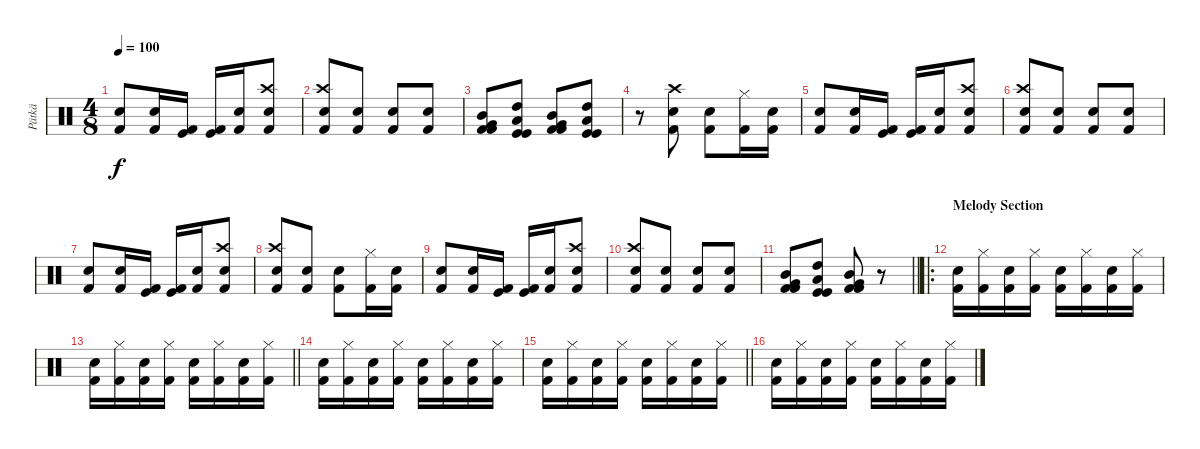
\track ("Pätkä" "Pätkä") {instrument percussion}
\staff {score}
\articulation defaults
\ts (4 8)
\tempo 100
\clef neutral
\ks c
("Snare (hit) 2" "Kick (hit) 2").8{dy f} ("Snare (hit) 2" "Kick (hit) 2").16 ("Kick (hit)" "Kick (hit) 2").16 ("Kick (hit)" "Kick (hit) 2").16 ("Snare (hit) 2" "Kick (hit) 2").16 ("Crash high (hit)" "Electric Snare (hit)" "Kick (hit) 2").8 |
("Crash high (hit)" "Electric Snare (hit)" "Kick (hit) 2").8 ("Snare (hit) 2" "Kick (hit) 2").8 ("Electric Snare (hit)" "Kick (hit) 2").8 ("Snare (hit) 2" "Kick (hit) 2").8 |
("Mid Tom (hit)" "Very Low Tom (hit)" "Kick (hit) 2" "Kick (hit) 2").8 ("High Tom (hit)" "Low Tom (hit)" "Kick (hit)" "Kick (hit)").8 ("Mid Tom (hit)" "Very Low Tom (hit)" "Kick (hit) 2" "Kick (hit) 2").8 ("High Tom (hit)" "Low Tom (hit)" "Kick (hit)" "Kick (hit)").8 |
r.8 ("Crash high (hit)" "Snare (hit) 2" "Kick (hit) 2").8 ("Electric Snare (hit)" "Kick (hit) 2").8 ("Hi-Hat (closed)" "Kick (hit) 2").16 ("Snare (hit) 2" "Kick (hit) 2").16 |
("Snare (hit) 2" "Kick (hit) 2").8 ("Snare (hit) 2" "Kick (hit) 2").16 ("Kick (hit)" "Kick (hit) 2").16 ("Kick (hit)" "Kick (hit) 2").16 ("Snare (hit) 2" "Kick (hit) 2").16 ("Crash high (hit)" "Electric Snare (hit)" "Kick (hit) 2").8 |
("Crash high (hit)" "Electric Snare (hit)" "Kick (hit) 2").8 ("Snare (hit) 2" "Kick (hit) 2").8 ("Electric Snare (hit)" "Kick (hit) 2").8 ("Snare (hit) 2" "Kick (hit) 2").8 |
("Electric Snare (hit)" "Kick (hit) 2").8 ("Snare (hit) 2" "Kick (hit) 2").16 ("Kick (hit)" "Kick (hit) 2").16 ("Kick (hit)" "Kick (hit) 2").16 ("Snare (hit) 2" "Kick (hit) 2").16 ("Crash high (hit)" "Electric Snare (hit)" "Kick (hit) 2").8 |
("Crash high (hit)" "Electric Snare (hit)" "Kick (hit) 2").8 ("Snare (hit) 2" "Kick (hit) 2").8 ("Electric Snare (hit)" "Kick (hit) 2").8 ("Hi-Hat (closed)" "Kick (hit) 2").16 ("Snare (hit) 2" "Kick (hit) 2").16 |
("Snare (hit) 2" "Kick (hit) 2").8 ("Snare (hit) 2" "Kick (hit) 2").16 ("Kick (hit)" "Kick (hit) 2").16 ("Kick (hit)" "Kick (hit) 2").16 ("Snare (hit) 2" "Kick (hit) 2").16 ("Crash high (hit)" "Electric Snare (hit)" "Kick (hit) 2").8 |
("Crash high (hit)" "Electric Snare (hit)" "Kick (hit) 2").8 ("Snare (hit) 2" "Kick (hit) 2").8 ("Electric Snare (hit)" "Kick (hit) 2").8 ("Snare (hit) 2" "Kick (hit) 2").8 |
\barLineRight lightlight
("Mid Tom (hit)" "Very Low Tom (hit)" "Kick (hit) 2" "Kick (hit) 2").8 ("High Tom (hit)" "Low Tom (hit)" "Kick (hit)" "Kick (hit)").8 ("Mid Tom (hit)" "Very Low Tom (hit)" "Kick (hit) 2" "Kick (hit) 2").8 r.8 |
\ro
\section ("" "Melody Section")
("Snare (hit) 2" "Kick (hit) 2").16 ("Hi-Hat (closed)" "Kick (hit) 2").16 ("Snare (hit) 2" "Kick (hit) 2").16 ("Hi-Hat (closed)" "Kick (hit) 2").16 ("Snare (hit) 2" "Kick (hit) 2").16 ("Hi-Hat (closed)" "Kick (hit) 2").16 ("Snare (hit) 2" "Kick (hit) 2").16 ("Hi-Hat (closed)" "Kick (hit) 2").16 |
\barLineRight lightlight
("Snare (hit) 2" "Kick (hit) 2").16 ("Hi-Hat (closed)" "Kick (hit) 2").16 ("Snare (hit) 2" "Kick (hit) 2").16 ("Hi-Hat (closed)" "Kick (hit) 2").16 ("Snare (hit) 2" "Kick (hit) 2").16 ("Hi-Hat (closed)" "Kick (hit) 2").16 ("Snare (hit) 2" "Kick (hit) 2").16 ("Hi-Hat (closed)" "Kick (hit) 2").16 |
("Snare (hit) 2" "Kick (hit) 2").16 ("Hi-Hat (closed)" "Kick (hit) 2").16 ("Snare (hit) 2" "Kick (hit) 2").16 ("Hi-Hat (closed)" "Kick (hit) 2").16 ("Snare (hit) 2" "Kick (hit) 2").16 ("Hi-Hat (closed)" "Kick (hit) 2").16 ("Snare (hit) 2" "Kick (hit) 2").16 ("Hi-Hat (closed)" "Kick (hit) 2").16 |
\barLineRight lightlight
("Snare (hit) 2" "Kick (hit) 2").16 ("Hi-Hat (closed)" "Kick (hit) 2").16 ("Snare (hit) 2" "Kick (hit) 2").16 ("Hi-Hat (closed)" "Kick (hit) 2").16 ("Snare (hit) 2" "Kick (hit) 2").16 ("Hi-Hat (closed)" "Kick (hit) 2").16 ("Snare (hit) 2" "Kick (hit) 2").16 ("Hi-Hat (closed)" "Kick (hit) 2").16 |
("Snare (hit) 2" "Kick (hit) 2").16 ("Hi-Hat (closed)" "Kick (hit) 2").16 ("Snare (hit) 2" "Kick (hit) 2").16 ("Hi-Hat (closed)" "Kick (hit) 2").16 ("Snare (hit) 2" "Kick (hit) 2").16 ("Hi-Hat (closed)" "Kick (hit) 2").16 ("Snare (hit) 2" "Kick (hit) 2").16 ("Hi-Hat (closed)" "Kick (hit) 2").16
